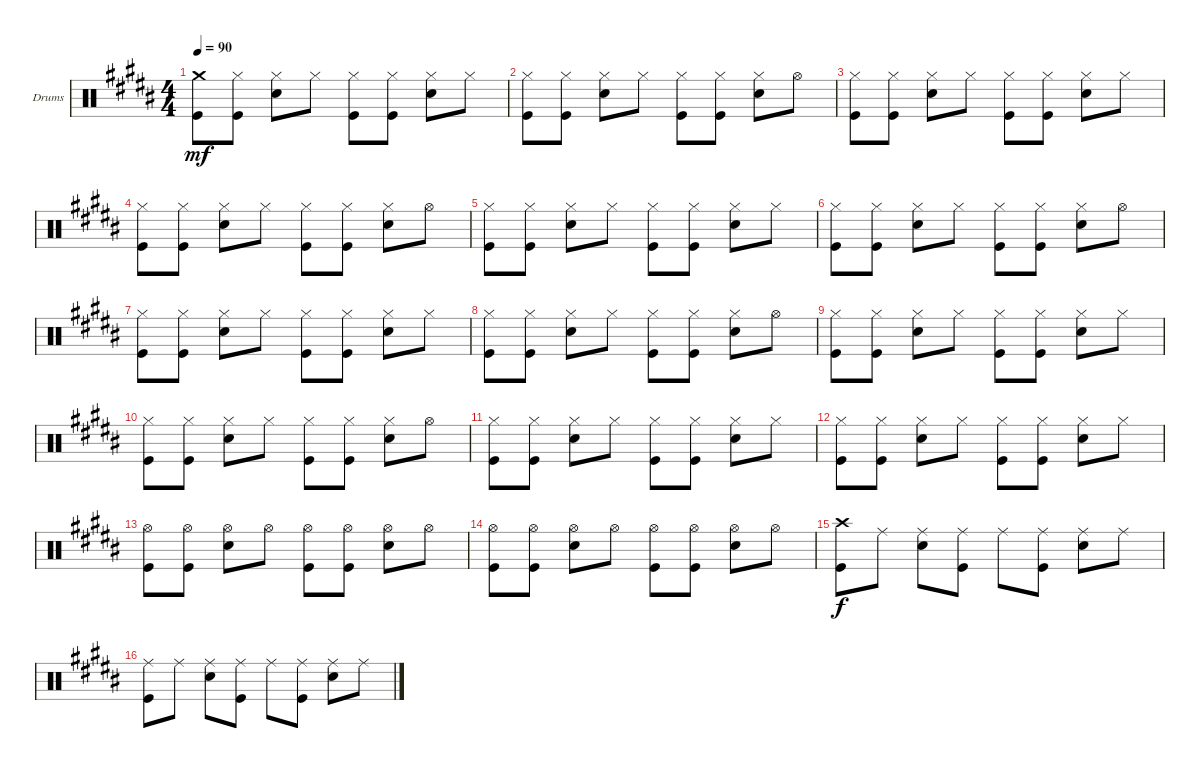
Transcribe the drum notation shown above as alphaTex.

\defaultSystemsLayout 4
\bracketExtendMode groupsimilarinstruments
\firstSystemTrackNameOrientation horizontal
\otherSystemsTrackNameOrientation horizontal
\track ("Drumkit" "Drums") {instrument percussion}
\staff {score}
\articulation defaults
\ts (4 4)
\tempo 90
\clef neutral
\ks b
("Crash medium (hit)" "Kick (hit)").8{dy mf} ("Kick (hit)" "Hi-Hat (closed)").8 ("Snare (hit) 2" "Hi-Hat (closed)").8 "Hi-Hat (closed)".8 ("Hi-Hat (closed)" "Kick (hit)").8 ("Hi-Hat (closed)" "Kick (hit)").8 ("Hi-Hat (closed)" "Snare (hit) 2").8 "Hi-Hat (closed)".8 |
("Kick (hit)" "Hi-Hat (closed)").8 ("Kick (hit)" "Hi-Hat (closed)").8 ("Snare (hit) 2" "Hi-Hat (closed)").8 "Hi-Hat (closed)".8 ("Hi-Hat (closed)" "Kick (hit)").8 ("Hi-Hat (closed)" "Kick (hit)").8 ("Hi-Hat (closed)" "Snare (hit) 2").8 "Hi-Hat (open)".8 |
("Kick (hit)" "Hi-Hat (closed)").8 ("Kick (hit)" "Hi-Hat (closed)").8 ("Snare (hit) 2" "Hi-Hat (closed)").8 "Hi-Hat (closed)".8 ("Hi-Hat (closed)" "Kick (hit)").8 ("Hi-Hat (closed)" "Kick (hit)").8 ("Hi-Hat (closed)" "Snare (hit) 2").8 "Hi-Hat (closed)".8 |
("Kick (hit)" "Hi-Hat (closed)").8 ("Kick (hit)" "Hi-Hat (closed)").8 ("Snare (hit) 2" "Hi-Hat (closed)").8 "Hi-Hat (closed)".8 ("Hi-Hat (closed)" "Kick (hit)").8 ("Hi-Hat (closed)" "Kick (hit)").8 ("Hi-Hat (closed)" "Snare (hit) 2").8 "Hi-Hat (open)".8 |
("Kick (hit)" "Hi-Hat (closed)").8 ("Kick (hit)" "Hi-Hat (closed)").8 ("Snare (hit) 2" "Hi-Hat (closed)").8 "Hi-Hat (closed)".8 ("Hi-Hat (closed)" "Kick (hit)").8 ("Hi-Hat (closed)" "Kick (hit)").8 ("Hi-Hat (closed)" "Snare (hit) 2").8 "Hi-Hat (closed)".8 |
("Kick (hit)" "Hi-Hat (closed)").8 ("Kick (hit)" "Hi-Hat (closed)").8 ("Snare (hit) 2" "Hi-Hat (closed)").8 "Hi-Hat (closed)".8 ("Hi-Hat (closed)" "Kick (hit)").8 ("Hi-Hat (closed)" "Kick (hit)").8 ("Hi-Hat (closed)" "Snare (hit) 2").8 "Hi-Hat (open)".8 |
("Kick (hit)" "Hi-Hat (closed)").8 ("Kick (hit)" "Hi-Hat (closed)").8 ("Snare (hit) 2" "Hi-Hat (closed)").8 "Hi-Hat (closed)".8 ("Hi-Hat (closed)" "Kick (hit)").8 ("Hi-Hat (closed)" "Kick (hit)").8 ("Hi-Hat (closed)" "Snare (hit) 2").8 "Hi-Hat (closed)".8 |
("Kick (hit)" "Hi-Hat (closed)").8 ("Kick (hit)" "Hi-Hat (closed)").8 ("Snare (hit) 2" "Hi-Hat (closed)").8 "Hi-Hat (closed)".8 ("Hi-Hat (closed)" "Kick (hit)").8 ("Hi-Hat (closed)" "Kick (hit)").8 ("Hi-Hat (closed)" "Snare (hit) 2").8 "Hi-Hat (open)".8 |
("Kick (hit)" "Hi-Hat (closed)").8 ("Kick (hit)" "Hi-Hat (closed)").8 ("Snare (hit) 2" "Hi-Hat (closed)").8 "Hi-Hat (closed)".8 ("Hi-Hat (closed)" "Kick (hit)").8 ("Hi-Hat (closed)" "Kick (hit)").8 ("Hi-Hat (closed)" "Snare (hit) 2").8 "Hi-Hat (closed)".8 |
("Kick (hit)" "Hi-Hat (closed)").8 ("Kick (hit)" "Hi-Hat (closed)").8 ("Snare (hit) 2" "Hi-Hat (closed)").8 "Hi-Hat (closed)".8 ("Hi-Hat (closed)" "Kick (hit)").8 ("Hi-Hat (closed)" "Kick (hit)").8 ("Hi-Hat (closed)" "Snare (hit) 2").8 "Hi-Hat (open)".8 |
("Kick (hit)" "Hi-Hat (closed)").8 ("Kick (hit)" "Hi-Hat (closed)").8 ("Snare (hit) 2" "Hi-Hat (closed)").8 "Hi-Hat (closed)".8 ("Hi-Hat (closed)" "Kick (hit)").8 ("Hi-Hat (closed)" "Kick (hit)").8 ("Hi-Hat (closed)" "Snare (hit) 2").8 "Hi-Hat (closed)".8 |
("Kick (hit)" "Hi-Hat (closed)").8 ("Kick (hit)" "Hi-Hat (closed)").8 ("Snare (hit) 2" "Hi-Hat (closed)").8 "Hi-Hat (closed)".8 ("Hi-Hat (closed)" "Kick (hit)").8 ("Hi-Hat (closed)" "Kick (hit)").8 ("Hi-Hat (closed)" "Snare (hit) 2").8 "Hi-Hat (closed)".8 |
("Kick (hit)" "Hi-Hat (open)").8 ("Kick (hit)" "Hi-Hat (open)").8 ("Snare (hit) 2" "Hi-Hat (open)").8 "Hi-Hat (open)".8 ("Kick (hit)" "Hi-Hat (open)").8 ("Kick (hit)" "Hi-Hat (open)").8 ("Snare (hit) 2" "Hi-Hat (open)").8 "Hi-Hat (open)".8 |
("Kick (hit)" "Hi-Hat (open)").8 ("Kick (hit)" "Hi-Hat (open)").8 ("Snare (hit) 2" "Hi-Hat (open)").8 "Hi-Hat (open)".8 ("Kick (hit)" "Hi-Hat (open)").8 ("Kick (hit)" "Hi-Hat (open)").8 ("Snare (hit) 2" "Hi-Hat (open)").8 "Hi-Hat (open)".8 |
("Kick (hit)" "Crash high (hit)").8{dy f} "Ride (middle)".8 ("Ride (middle)" "Snare (hit) 2").8 ("Ride (middle)" "Kick (hit)").8 "Ride (middle)".8 ("Ride (middle)" "Kick (hit)").8 ("Ride (middle)" "Snare (hit) 2").8 "Ride (middle)".8 |
("Kick (hit)" "Ride (middle)").8 "Ride (middle)".8 ("Ride (middle)" "Snare (hit) 2").8 ("Ride (middle)" "Kick (hit)").8 "Ride (middle)".8 ("Ride (middle)" "Kick (hit)").8 ("Ride (middle)" "Snare (hit) 2").8 "Ride (middle)".8
